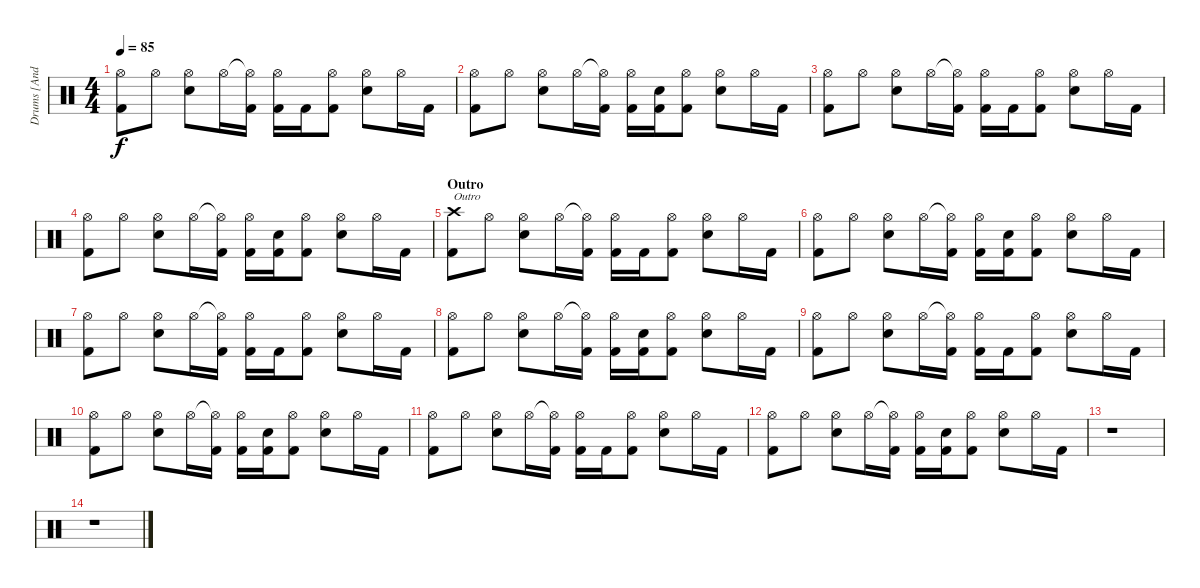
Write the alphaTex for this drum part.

\track ("Drums [Anders Kobro]" "Drums [And") {instrument percussion}
\staff {score}
\articulation defaults
\ts (4 4)
\tempo 85
\clef neutral
\ks c
("Hi-Hat (open)" "Kick (hit) 2").8{dy f} "Hi-Hat (open)".8 ("Hi-Hat (open)" "Electric Snare (hit)").8 "Hi-Hat (open)".16 ("Hi-Hat (open)"{t} "Kick (hit) 2").16 ("Hi-Hat (open)" "Kick (hit) 2").16 "Kick (hit) 2".16 ("Hi-Hat (open)" "Kick (hit) 2").8 ("Hi-Hat (open)" "Electric Snare (hit)").8 "Hi-Hat (open)".16 "Kick (hit) 2".16 |
("Hi-Hat (open)" "Kick (hit) 2").8 "Hi-Hat (open)".8 ("Hi-Hat (open)" "Electric Snare (hit)").8 "Hi-Hat (open)".16 ("Hi-Hat (open)"{t} "Kick (hit) 2").16 ("Hi-Hat (open)" "Kick (hit) 2").16 ("Electric Snare (hit)" "Kick (hit) 2").16 ("Hi-Hat (open)" "Kick (hit) 2").8 ("Hi-Hat (open)" "Electric Snare (hit)").8 "Hi-Hat (open)".16 "Kick (hit) 2".16 |
("Hi-Hat (open)" "Kick (hit) 2").8 "Hi-Hat (open)".8 ("Hi-Hat (open)" "Electric Snare (hit)").8 "Hi-Hat (open)".16 ("Hi-Hat (open)"{t} "Kick (hit) 2").16 ("Hi-Hat (open)" "Kick (hit) 2").16 "Kick (hit) 2".16 ("Hi-Hat (open)" "Kick (hit) 2").8 ("Hi-Hat (open)" "Electric Snare (hit)").8 "Hi-Hat (open)".16 "Kick (hit) 2".16 |
("Hi-Hat (open)" "Kick (hit) 2").8 "Hi-Hat (open)".8 ("Hi-Hat (open)" "Electric Snare (hit)").8 "Hi-Hat (open)".16 ("Hi-Hat (open)"{t} "Kick (hit) 2").16 ("Hi-Hat (open)" "Kick (hit) 2").16 ("Electric Snare (hit)" "Kick (hit) 2").16 ("Hi-Hat (open)" "Kick (hit) 2").8 ("Hi-Hat (open)" "Electric Snare (hit)").8 "Hi-Hat (open)".16 "Kick (hit) 2".16 |
\section ("" "Outro")
("Crash high (hit)" "Kick (hit) 2").8{txt "Outro"} "Hi-Hat (open)".8 ("Hi-Hat (open)" "Electric Snare (hit)").8 "Hi-Hat (open)".16 ("Hi-Hat (open)"{t} "Kick (hit) 2").16 ("Hi-Hat (open)" "Kick (hit) 2").16 "Kick (hit) 2".16 ("Hi-Hat (open)" "Kick (hit) 2").8 ("Hi-Hat (open)" "Electric Snare (hit)").8 "Hi-Hat (open)".16 "Kick (hit) 2".16 |
("Hi-Hat (open)" "Kick (hit) 2").8 "Hi-Hat (open)".8 ("Hi-Hat (open)" "Electric Snare (hit)").8 "Hi-Hat (open)".16 ("Hi-Hat (open)"{t} "Kick (hit) 2").16 ("Hi-Hat (open)" "Kick (hit) 2").16 ("Electric Snare (hit)" "Kick (hit) 2").16 ("Hi-Hat (open)" "Kick (hit) 2").8 ("Hi-Hat (open)" "Electric Snare (hit)").8 "Hi-Hat (open)".16 "Kick (hit) 2".16 |
("Hi-Hat (open)" "Kick (hit) 2").8 "Hi-Hat (open)".8 ("Hi-Hat (open)" "Electric Snare (hit)").8 "Hi-Hat (open)".16 ("Hi-Hat (open)"{t} "Kick (hit) 2").16 ("Hi-Hat (open)" "Kick (hit) 2").16 "Kick (hit) 2".16 ("Hi-Hat (open)" "Kick (hit) 2").8 ("Hi-Hat (open)" "Electric Snare (hit)").8 "Hi-Hat (open)".16 "Kick (hit) 2".16 |
("Hi-Hat (open)" "Kick (hit) 2").8 "Hi-Hat (open)".8 ("Hi-Hat (open)" "Electric Snare (hit)").8 "Hi-Hat (open)".16 ("Hi-Hat (open)"{t} "Kick (hit) 2").16 ("Hi-Hat (open)" "Kick (hit) 2").16 ("Electric Snare (hit)" "Kick (hit) 2").16 ("Hi-Hat (open)" "Kick (hit) 2").8 ("Hi-Hat (open)" "Electric Snare (hit)").8 "Hi-Hat (open)".16 "Kick (hit) 2".16 |
("Hi-Hat (open)" "Kick (hit) 2").8 "Hi-Hat (open)".8 ("Hi-Hat (open)" "Electric Snare (hit)").8 "Hi-Hat (open)".16 ("Hi-Hat (open)"{t} "Kick (hit) 2").16 ("Hi-Hat (open)" "Kick (hit) 2").16 "Kick (hit) 2".16 ("Hi-Hat (open)" "Kick (hit) 2").8 ("Hi-Hat (open)" "Electric Snare (hit)").8 "Hi-Hat (open)".16 "Kick (hit) 2".16 |
("Hi-Hat (open)" "Kick (hit) 2").8 "Hi-Hat (open)".8 ("Hi-Hat (open)" "Electric Snare (hit)").8 "Hi-Hat (open)".16 ("Hi-Hat (open)"{t} "Kick (hit) 2").16 ("Hi-Hat (open)" "Kick (hit) 2").16 ("Electric Snare (hit)" "Kick (hit) 2").16 ("Hi-Hat (open)" "Kick (hit) 2").8 ("Hi-Hat (open)" "Electric Snare (hit)").8 "Hi-Hat (open)".16 "Kick (hit) 2".16 |
("Hi-Hat (open)" "Kick (hit) 2").8 "Hi-Hat (open)".8 ("Hi-Hat (open)" "Electric Snare (hit)").8 "Hi-Hat (open)".16 ("Hi-Hat (open)"{t} "Kick (hit) 2").16 ("Hi-Hat (open)" "Kick (hit) 2").16 "Kick (hit) 2".16 ("Hi-Hat (open)" "Kick (hit) 2").8 ("Hi-Hat (open)" "Electric Snare (hit)").8 "Hi-Hat (open)".16 "Kick (hit) 2".16 |
("Hi-Hat (open)" "Kick (hit) 2").8 "Hi-Hat (open)".8 ("Hi-Hat (open)" "Electric Snare (hit)").8 "Hi-Hat (open)".16 ("Hi-Hat (open)"{t} "Kick (hit) 2").16 ("Hi-Hat (open)" "Kick (hit) 2").16 ("Electric Snare (hit)" "Kick (hit) 2").16 ("Hi-Hat (open)" "Kick (hit) 2").8 ("Hi-Hat (open)" "Electric Snare (hit)").8 "Hi-Hat (open)".16 "Kick (hit) 2".16 |
r.1 |
r.1
